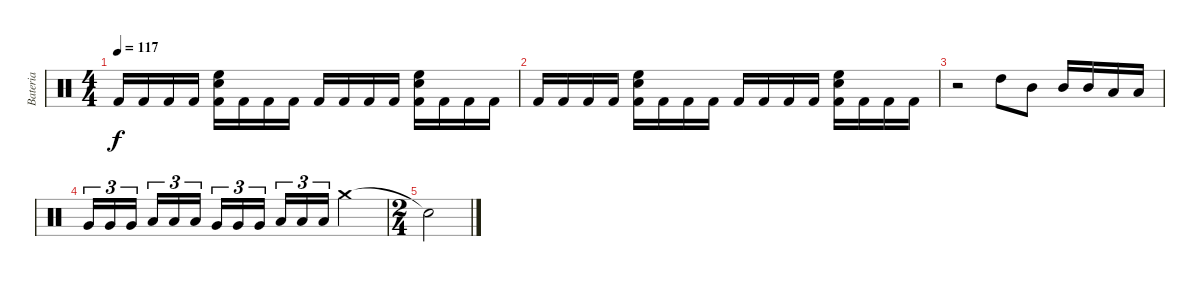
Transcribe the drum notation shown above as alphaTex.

\track ("Bateria" "Bateria") {instrument percussion}
\staff {score}
\articulation defaults
\ts (4 4)
\tempo 117
\clef neutral
\ks c "Kick (hit) 2".16{dy f} "Kick (hit) 2".16 "Kick (hit) 2".16 "Kick (hit) 2".16
("Snare (hit) 2" "High Floor Tom (hit)" "Kick (hit) 2").16 "Kick (hit) 2".16 "Kick (hit) 2".16 "Kick (hit) 2".16 "Kick (hit) 2".16 "Kick (hit) 2".16 "Kick (hit) 2".16 "Kick (hit) 2".16 ("Snare (hit) 2" "High Floor Tom (hit)" "Kick (hit) 2").16 "Kick (hit) 2".16 "Kick (hit) 2".16 "Kick (hit) 2".16 |
"Kick (hit) 2".16 "Kick (hit) 2".16 "Kick (hit) 2".16 "Kick (hit) 2".16 ("Snare (hit) 2" "High Floor Tom (hit)" "Kick (hit) 2").16 "Kick (hit) 2".16 "Kick (hit) 2".16 "Kick (hit) 2".16 "Kick (hit) 2".16 "Kick (hit) 2".16 "Kick (hit) 2".16 "Kick (hit) 2".16 ("Snare (hit) 2" "High Floor Tom (hit)" "Kick (hit) 2").16 "Kick (hit) 2".16 "Kick (hit) 2".16 "Kick (hit) 2".16 |
r.2 "High Tom (hit)".8 "Mid Tom (hit)".8 "Mid Tom (hit)".16 "Mid Tom (hit)".16 "Low Tom (hit)".16 "Low Tom (hit)".16 |
"Very Low Tom (hit)".16{tu (3 2)} "Very Low Tom (hit)".16{tu (3 2)} "Very Low Tom (hit)".16{tu (3 2)} "Low Floor Tom (hit)".16{tu (3 2)} "Low Floor Tom (hit)".16{tu (3 2)} "Low Floor Tom (hit)".16{tu (3 2)} "Very Low Tom (hit)".16{tu (3 2)} "Very Low Tom (hit)".16{tu (3 2)} "Very Low Tom (hit)".16{tu (3 2)} "Low Floor Tom (hit)".16{tu (3 2)} "Low Floor Tom (hit)".16{tu (3 2)} "Low Floor Tom (hit)".16{tu (3 2)} "Crash medium (hit)".2 |
\ts (2 4)
"Snare (hit)"{t}.2
